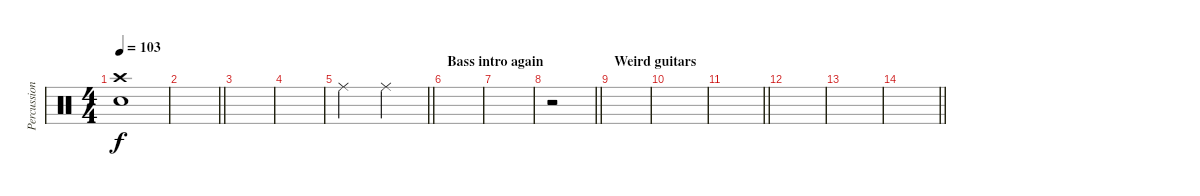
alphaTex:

\track ("Percussion" "Percussion") {instrument percussion}
\staff {score}
\articulation defaults
\ts (4 4)
\tempo 103
\clef neutral
\ks c
("Crash high (hit)" "Electric Snare (hit)").1{dy f} |
\barLineRight lightlight
|
|
|
\barLineRight lightlight "Ride (middle)".2 "Ride (middle)".2
|
\section ("" "Bass intro again")
|
|
\barLineRight lightlight
r.2 |
\section ("" "Weird guitars")
|
|
\barLineRight lightlight
|
|
|
\barLineRight lightlight
